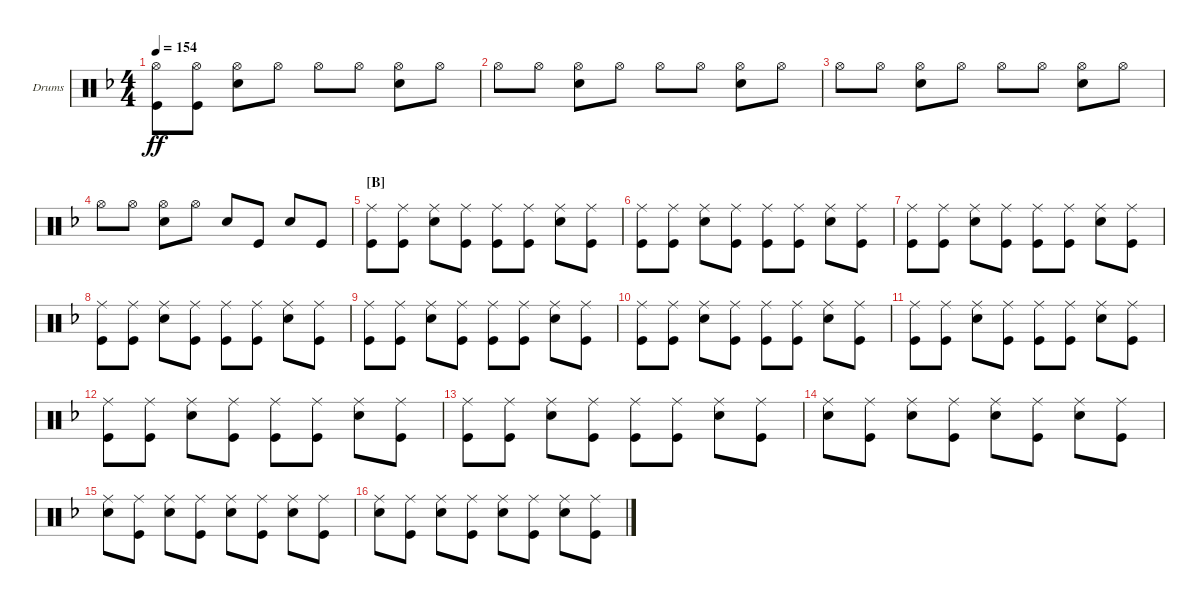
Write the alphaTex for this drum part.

\bracketExtendMode groupsimilarinstruments
\firstSystemTrackNameOrientation horizontal
\otherSystemsTrackNameOrientation horizontal
\track ("Fabrizio Moretti" "Drums") {instrument percussion}
\staff {score}
\articulation defaults
\ts (4 4)
\tempo 154
\clef neutral
\ks f
("Hi-Hat (open)" "Kick (hit)").8{dy ff} ("Hi-Hat (open)" "Kick (hit)").8 ("Hi-Hat (open)" "Snare (hit) 2").8 "Hi-Hat (open)".8 "Hi-Hat (open)".8 "Hi-Hat (open)".8 ("Hi-Hat (open)" "Snare (hit) 2").8 "Hi-Hat (open)".8 |
"Hi-Hat (open)".8 "Hi-Hat (open)".8 ("Hi-Hat (open)" "Snare (hit) 2").8 "Hi-Hat (open)".8 "Hi-Hat (open)".8 "Hi-Hat (open)".8 ("Hi-Hat (open)" "Snare (hit) 2").8 "Hi-Hat (open)".8 |
"Hi-Hat (open)".8 "Hi-Hat (open)".8 ("Hi-Hat (open)" "Snare (hit) 2").8 "Hi-Hat (open)".8 "Hi-Hat (open)".8 "Hi-Hat (open)".8 ("Hi-Hat (open)" "Snare (hit) 2").8 "Hi-Hat (open)".8 |
"Hi-Hat (open)".8 "Hi-Hat (open)".8 ("Hi-Hat (open)" "Snare (hit) 2").8 "Hi-Hat (open)".8 "Snare (hit) 2".8 "Kick (hit)".8 "Snare (hit) 2".8 "Kick (hit)".8 |
\section ("B" "")
("Ride (middle)" "Kick (hit)").8 ("Ride (middle)" "Kick (hit)").8 ("Ride (middle)" "Snare (hit) 2").8 ("Ride (middle)" "Kick (hit)").8 ("Ride (middle)" "Kick (hit)").8 ("Ride (middle)" "Kick (hit)").8 ("Ride (middle)" "Snare (hit) 2").8 ("Ride (middle)" "Kick (hit)").8 |
("Ride (middle)" "Kick (hit)").8 ("Ride (middle)" "Kick (hit)").8 ("Ride (middle)" "Snare (hit) 2").8 ("Ride (middle)" "Kick (hit)").8 ("Ride (middle)" "Kick (hit)").8 ("Ride (middle)" "Kick (hit)").8 ("Ride (middle)" "Snare (hit) 2").8 ("Ride (middle)" "Kick (hit)").8 |
("Ride (middle)" "Kick (hit)").8 ("Ride (middle)" "Kick (hit)").8 ("Ride (middle)" "Snare (hit) 2").8 ("Ride (middle)" "Kick (hit)").8 ("Ride (middle)" "Kick (hit)").8 ("Ride (middle)" "Kick (hit)").8 ("Ride (middle)" "Snare (hit) 2").8 ("Ride (middle)" "Kick (hit)").8 |
("Ride (middle)" "Kick (hit)").8 ("Ride (middle)" "Kick (hit)").8 ("Ride (middle)" "Snare (hit) 2").8 ("Ride (middle)" "Kick (hit)").8 ("Ride (middle)" "Kick (hit)").8 ("Ride (middle)" "Kick (hit)").8 ("Ride (middle)" "Snare (hit) 2").8 ("Ride (middle)" "Kick (hit)").8 |
("Ride (middle)" "Kick (hit)").8 ("Ride (middle)" "Kick (hit)").8 ("Ride (middle)" "Snare (hit) 2").8 ("Ride (middle)" "Kick (hit)").8 ("Ride (middle)" "Kick (hit)").8 ("Ride (middle)" "Kick (hit)").8 ("Ride (middle)" "Snare (hit) 2").8 ("Ride (middle)" "Kick (hit)").8 |
("Ride (middle)" "Kick (hit)").8 ("Ride (middle)" "Kick (hit)").8 ("Ride (middle)" "Snare (hit) 2").8 ("Ride (middle)" "Kick (hit)").8 ("Ride (middle)" "Kick (hit)").8 ("Ride (middle)" "Kick (hit)").8 ("Ride (middle)" "Snare (hit) 2").8 ("Ride (middle)" "Kick (hit)").8 |
("Ride (middle)" "Kick (hit)").8 ("Ride (middle)" "Kick (hit)").8 ("Ride (middle)" "Snare (hit) 2").8 ("Ride (middle)" "Kick (hit)").8 ("Ride (middle)" "Kick (hit)").8 ("Ride (middle)" "Kick (hit)").8 ("Ride (middle)" "Snare (hit) 2").8 ("Ride (middle)" "Kick (hit)").8 |
("Ride (middle)" "Kick (hit)").8 ("Ride (middle)" "Kick (hit)").8 ("Ride (middle)" "Snare (hit) 2").8 ("Ride (middle)" "Kick (hit)").8 ("Ride (middle)" "Kick (hit)").8 ("Ride (middle)" "Kick (hit)").8 ("Ride (middle)" "Snare (hit) 2").8 ("Ride (middle)" "Kick (hit)").8 |
("Ride (middle)" "Kick (hit)").8 ("Ride (middle)" "Kick (hit)").8 ("Ride (middle)" "Snare (hit) 2").8 ("Ride (middle)" "Kick (hit)").8 ("Ride (middle)" "Kick (hit)").8 ("Ride (middle)" "Kick (hit)").8 ("Ride (middle)" "Snare (hit) 2").8 ("Ride (middle)" "Kick (hit)").8 |
("Ride (middle)" "Snare (hit) 2").8 ("Ride (middle)" "Kick (hit)").8 ("Ride (middle)" "Snare (hit) 2").8 ("Ride (middle)" "Kick (hit)").8 ("Ride (middle)" "Snare (hit) 2").8 ("Ride (middle)" "Kick (hit)").8 ("Ride (middle)" "Snare (hit) 2").8 ("Ride (middle)" "Kick (hit)").8 |
("Ride (middle)" "Snare (hit) 2").8 ("Ride (middle)" "Kick (hit)").8 ("Ride (middle)" "Snare (hit) 2").8 ("Ride (middle)" "Kick (hit)").8 ("Ride (middle)" "Snare (hit) 2").8 ("Ride (middle)" "Kick (hit)").8 ("Ride (middle)" "Snare (hit) 2").8 ("Ride (middle)" "Kick (hit)").8 |
("Ride (middle)" "Snare (hit) 2").8 ("Ride (middle)" "Kick (hit)").8 ("Ride (middle)" "Snare (hit) 2").8 ("Ride (middle)" "Kick (hit)").8 ("Ride (middle)" "Snare (hit) 2").8 ("Ride (middle)" "Kick (hit)").8 ("Ride (middle)" "Snare (hit) 2").8 ("Ride (middle)" "Kick (hit)").8
